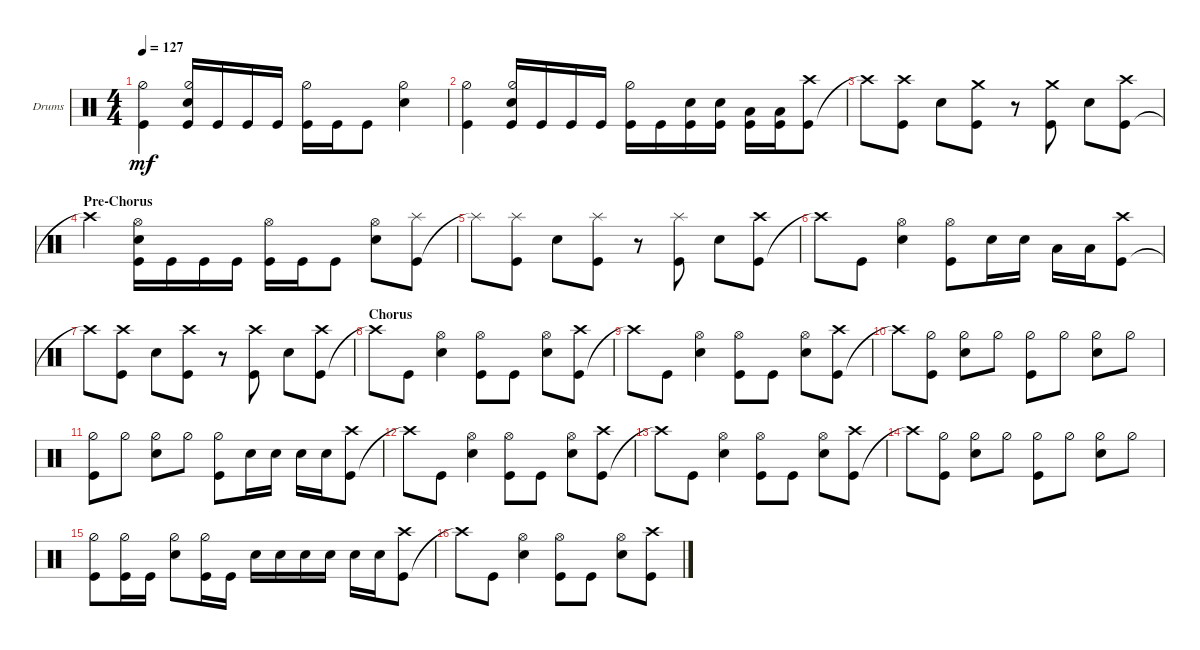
\defaultSystemsLayout 4
\bracketExtendMode groupsimilarinstruments
\firstSystemTrackNameOrientation horizontal
\otherSystemsTrackNameOrientation horizontal
\track ("Drumkit" "Drums") {instrument percussion}
\staff {score}
\articulation defaults
\ts (4 4)
\tempo 127
\clef neutral
\scale
0.333333
\ks c
("Kick (hit)" "Hi-Hat (half)").4{dy mf} ("Kick (hit)" "Snare (hit) 2" "Hi-Hat (half)").16 "Kick (hit)".16 "Kick (hit)".16 "Kick (hit)".16 ("Kick (hit)" "Hi-Hat (half)").16 "Kick (hit)".16 "Kick (hit)".8 ("Snare (hit) 2" "Hi-Hat (half)").4 |
\scale
0.333333 ("Kick (hit)" "Hi-Hat (half)").4 ("Kick (hit)" "Snare (hit) 2" "Hi-Hat (half)").16 "Kick (hit)".16 "Kick (hit)".16 "Kick (hit)".16 ("Kick (hit)" "Hi-Hat (half)").16 "Kick (hit)".16 ("Kick (hit)" "Snare (hit) 2").16 ("Snare (hit) 2" "Kick (hit)").16 ("Kick (hit)" "Low Tom (hit)").16 ("Kick (hit)" "Low Tom (hit)").16 ("Kick (hit)" "Crash high (hit)").8 |
\scale
0.333333 "Crash high (hit)"{t}.8 ("Crash high (hit)" "Kick (hit)").8 "Snare (hit) 2".8 ("Kick (hit)" "Crash medium (hit)").8 r.8 ("Kick (hit)" "Crash medium (hit)").8 "Snare (hit) 2".8 ("Kick (hit)" "Crash high (hit)").8 |
\section ("" "Pre-Chorus")
\scale
0.333333 "Crash high (hit)"{t}.4 ("Kick (hit)" "Snare (hit) 2" "Hi-Hat (open)").16 "Kick (hit)".16 "Kick (hit)".16 "Kick (hit)".16 ("Kick (hit)" "Hi-Hat (open)").16 "Kick (hit)".16 "Kick (hit)".8 ("Snare (hit) 2" "Hi-Hat (open)").8 ("Kick (hit)" "Splash (hit)").8 |
\scale
0.333333 "Splash (hit)"{t}.8 ("Kick (hit)" "Splash (hit)").8 "Snare (hit) 2".8 ("Kick (hit)" "Splash (hit)").8 r.8 ("Kick (hit)" "Splash (hit)").8 "Snare (hit) 2".8 ("Kick (hit)" "Crash high (hit)").8 |
\scale
0.333333 "Crash high (hit)"{t}.8 "Kick (hit)".8 ("Snare (hit) 2" "Hi-Hat (open)").4 ("Kick (hit)" "Hi-Hat (open)").8 "Snare (hit) 2".16 "Snare (hit) 2".16 "Low Tom (hit)".16 "Low Tom (hit)".16 ("Kick (hit)" "Crash high (hit)").8 |
\scale
0.333333 "Crash high (hit)"{t}.8 ("Kick (hit)" "Crash high (hit)").8 "Snare (hit) 2".8 ("Kick (hit)" "Crash high (hit)").8 r.8 ("Kick (hit)" "Crash high (hit)").8 "Snare (hit) 2".8 ("Kick (hit)" "Crash high (hit)").8 |
\section ("" "Chorus")
\scale
0.333333 "Crash high (hit)"{t}.8 "Kick (hit)".8 ("Snare (hit) 2" "Hi-Hat (open)").4 ("Kick (hit)" "Hi-Hat (open)").8 "Kick (hit)".8 ("Snare (hit) 2" "Hi-Hat (open)").8 ("Kick (hit)" "Crash high (hit)").8 |
\scale
0.333333 "Crash high (hit)"{t}.8 "Kick (hit)".8 ("Snare (hit) 2" "Hi-Hat (open)").4 ("Kick (hit)" "Hi-Hat (open)").8 "Kick (hit)".8 ("Snare (hit) 2" "Hi-Hat (open)").8 ("Kick (hit)" "Crash high (hit)").8 |
\scale
0.333333 "Crash high (hit)"{t}.8 ("Hi-Hat (half)" "Kick (hit)").8 ("Snare (hit) 2" "Hi-Hat (half)").8 "Hi-Hat (half)".8 ("Hi-Hat (half)" "Kick (hit)").8 "Hi-Hat (half)".8 ("Hi-Hat (half)" "Snare (hit) 2").8 "Hi-Hat (half)".8 |
\scale
0.333333 ("Hi-Hat (half)" "Kick (hit)").8 "Hi-Hat (half)".8 ("Hi-Hat (half)" "Snare (hit) 2").8 "Hi-Hat (half)".8 ("Hi-Hat (half)" "Kick (hit)").8 "Snare (hit) 2".16 "Snare (hit) 2".16 "Snare (hit) 2".16 "Snare (hit) 2".16 ("Kick (hit)" "Crash high (hit)").8 |
\scale
0.333333 "Crash high (hit)"{t}.8 "Kick (hit)".8 ("Snare (hit) 2" "Hi-Hat (open)").4 ("Kick (hit)" "Hi-Hat (open)").8 "Kick (hit)".8 ("Snare (hit) 2" "Hi-Hat (open)").8 ("Kick (hit)" "Crash high (hit)").8 |
\scale
0.333333 "Crash high (hit)"{t}.8 "Kick (hit)".8 ("Snare (hit) 2" "Hi-Hat (open)").4 ("Kick (hit)" "Hi-Hat (open)").8 "Kick (hit)".8 ("Snare (hit) 2" "Hi-Hat (open)").8 ("Kick (hit)" "Crash high (hit)").8 |
\scale
0.333333 "Crash high (hit)"{t}.8 ("Hi-Hat (half)" "Kick (hit)").8 ("Snare (hit) 2" "Hi-Hat (half)").8 "Hi-Hat (half)".8 ("Hi-Hat (half)" "Kick (hit)").8 "Hi-Hat (half)".8 ("Hi-Hat (half)" "Snare (hit) 2").8 "Hi-Hat (half)".8 |
\scale
0.333333 ("Hi-Hat (half)" "Kick (hit)").8 ("Kick (hit)" "Hi-Hat (half)").16 "Kick (hit)".16 ("Hi-Hat (half)" "Snare (hit) 2").8 ("Kick (hit)" "Hi-Hat (half)").16 "Kick (hit)".16 "Snare (hit) 2".16 "Snare (hit) 2".16 "Snare (hit) 2".16 "Snare (hit) 2".16 "Snare (hit) 2".16 "Snare (hit) 2".16 ("Kick (hit)" "Crash high (hit)").8 |
\scale
0.333333 "Crash high (hit)"{t}.8 "Kick (hit)".8 ("Snare (hit) 2" "Hi-Hat (open)").4 ("Kick (hit)" "Hi-Hat (open)").8 "Kick (hit)".8 ("Snare (hit) 2" "Hi-Hat (open)").8 ("Kick (hit)" "Crash high (hit)").8
